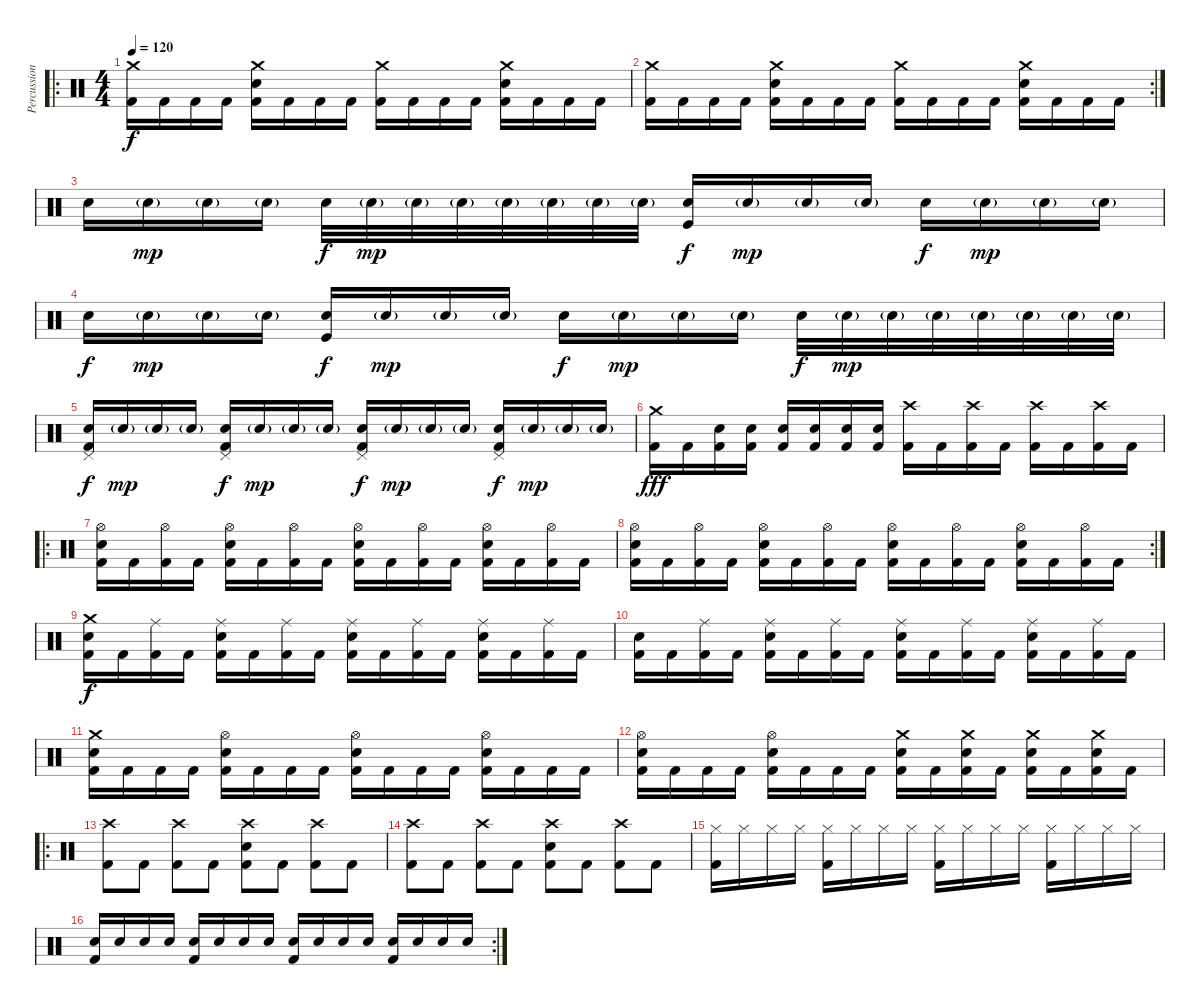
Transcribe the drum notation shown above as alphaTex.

\track ("Percussions" "Percussion") {instrument percussion}
\staff {score}
\articulation defaults
\ro
\ts (4 4)
\tempo 120
\clef neutral
\ks c
("Crash medium (hit)" "Kick (hit) 2").16{dy f} "Kick (hit) 2".16 "Kick (hit) 2".16 "Kick (hit) 2".16 ("Crash medium (hit)" "Electric Snare (hit)" "Kick (hit) 2").16 "Kick (hit) 2".16 "Kick (hit) 2".16 "Kick (hit) 2".16 ("Crash medium (hit)" "Kick (hit) 2").16 "Kick (hit) 2".16 "Kick (hit) 2".16 "Kick (hit) 2".16 ("Crash medium (hit)" "Electric Snare (hit)" "Kick (hit) 2").16 "Kick (hit) 2".16 "Kick (hit) 2".16 "Kick (hit) 2".16 |
\rc 2
("Crash medium (hit)" "Kick (hit) 2").16 "Kick (hit) 2".16 "Kick (hit) 2".16 "Kick (hit) 2".16 ("Crash medium (hit)" "Electric Snare (hit)" "Kick (hit) 2").16 "Kick (hit) 2".16 "Kick (hit) 2".16 "Kick (hit) 2".16 ("Crash medium (hit)" "Kick (hit) 2").16 "Kick (hit) 2".16 "Kick (hit) 2".16 "Kick (hit) 2".16 ("Crash medium (hit)" "Electric Snare (hit)" "Kick (hit) 2").16 "Kick (hit) 2".16 "Kick (hit) 2".16 "Kick (hit) 2".16 |
"Snare (hit) 2".16 "Snare (hit) 2"{g}.16{dy mp} "Snare (hit) 2"{g}.16 "Snare (hit) 2"{g}.16 "Snare (hit) 2".32{dy f} "Snare (hit) 2"{g}.32{dy mp} "Snare (hit) 2"{g}.32 "Snare (hit) 2"{g}.32 "Snare (hit) 2"{g}.32 "Snare (hit) 2"{g}.32 "Snare (hit) 2"{g}.32 "Snare (hit) 2"{g}.32 ("Snare (hit) 2" "Kick (hit)").16{dy f} "Snare (hit) 2"{g}.16{dy mp} "Snare (hit) 2"{g}.16 "Snare (hit) 2"{g}.16 "Snare (hit) 2".16{dy f} "Snare (hit) 2"{g}.16{dy mp} "Snare (hit) 2"{g}.16 "Snare (hit) 2"{g}.16 |
"Snare (hit) 2".16{dy f} "Snare (hit) 2"{g}.16{dy mp} "Snare (hit) 2"{g}.16 "Snare (hit) 2"{g}.16 ("Snare (hit) 2" "Kick (hit)").16{dy f} "Snare (hit) 2"{g}.16{dy mp} "Snare (hit) 2"{g}.16 "Snare (hit) 2"{g}.16 "Snare (hit) 2".16{dy f} "Snare (hit) 2"{g}.16{dy mp} "Snare (hit) 2"{g}.16 "Snare (hit) 2"{g}.16 "Snare (hit) 2".32{dy f} "Snare (hit) 2"{g}.32{dy mp} "Snare (hit) 2"{g}.32 "Snare (hit) 2"{g}.32 "Snare (hit) 2"{g}.32 "Snare (hit) 2"{g}.32 "Snare (hit) 2"{g}.32 "Snare (hit) 2"{g}.32 |
("Pedal Hi-Hat (hit)" "Electric Snare (hit)" "Kick (hit) 2").16{dy f volume 11} "Electric Snare (hit)"{g}.16{dy mp} "Electric Snare (hit)"{g}.16 "Electric Snare (hit)"{g}.16 ("Pedal Hi-Hat (hit)" "Electric Snare (hit)" "Kick (hit) 2").16{dy f} "Electric Snare (hit)"{g}.16{dy mp} "Electric Snare (hit)"{g}.16 "Electric Snare (hit)"{g}.16 ("Pedal Hi-Hat (hit)" "Electric Snare (hit)" "Kick (hit) 2").16{dy f} "Electric Snare (hit)"{g}.16{dy mp} "Electric Snare (hit)"{g}.16 "Electric Snare (hit)"{g}.16 ("Pedal Hi-Hat (hit)" "Electric Snare (hit)" "Kick (hit) 2").16{dy f} "Electric Snare (hit)"{g}.16{dy mp} "Electric Snare (hit)"{g}.16 "Electric Snare (hit)"{g}.16 |
("Crash medium (hit)" "Kick (hit) 2").16{dy fff} "Kick (hit) 2".16 ("Electric Snare (hit)" "Kick (hit) 2").16 ("Electric Snare (hit)" "Kick (hit) 2").16 ("Electric Snare (hit)" "Kick (hit) 2").16 ("Electric Snare (hit)" "Kick (hit) 2").16 ("Electric Snare (hit)" "Kick (hit) 2").16 ("Electric Snare (hit)" "Kick (hit) 2").16 ("Crash high (hit)" "Kick (hit) 2").16 "Kick (hit) 2".16 ("Crash high (hit)" "Kick (hit) 2").16 "Kick (hit) 2".16 ("Crash high (hit)" "Kick (hit) 2").16 "Kick (hit) 2".16 ("Crash high (hit)" "Kick (hit) 2").16 "Kick (hit) 2".16 |
\ro
("Hi-Hat (open)" "Electric Snare (hit)" "Kick (hit) 2").16 "Kick (hit) 2".16 ("Hi-Hat (open)" "Kick (hit) 2").16 "Kick (hit) 2".16 ("Hi-Hat (open)" "Electric Snare (hit)" "Kick (hit) 2").16 "Kick (hit) 2".16 ("Hi-Hat (open)" "Kick (hit) 2").16 "Kick (hit) 2".16 ("Hi-Hat (open)" "Electric Snare (hit)" "Kick (hit) 2").16 "Kick (hit) 2".16 ("Hi-Hat (open)" "Kick (hit) 2").16 "Kick (hit) 2".16 ("Hi-Hat (open)" "Electric Snare (hit)" "Kick (hit) 2").16 "Kick (hit) 2".16 ("Hi-Hat (open)" "Kick (hit) 2").16 "Kick (hit) 2".16 |
\rc 2
("Hi-Hat (open)" "Electric Snare (hit)" "Kick (hit) 2").16 "Kick (hit) 2".16 ("Hi-Hat (open)" "Kick (hit) 2").16 "Kick (hit) 2".16 ("Hi-Hat (open)" "Electric Snare (hit)" "Kick (hit) 2").16 "Kick (hit) 2".16 ("Hi-Hat (open)" "Kick (hit) 2").16 "Kick (hit) 2".16 ("Hi-Hat (open)" "Electric Snare (hit)" "Kick (hit) 2").16 "Kick (hit) 2".16 ("Hi-Hat (open)" "Kick (hit) 2").16 "Kick (hit) 2".16 ("Hi-Hat (open)" "Electric Snare (hit)" "Kick (hit) 2").16 "Kick (hit) 2".16 ("Hi-Hat (open)" "Kick (hit) 2").16 "Kick (hit) 2".16 |
("Kick (hit) 2" "Crash medium (hit)" "Electric Snare (hit)").16{dy f} "Kick (hit) 2".16 ("Kick (hit) 2" "Ride (middle)").16 "Kick (hit) 2".16 ("Kick (hit) 2" "Ride (middle)" "Electric Snare (hit)").16 "Kick (hit) 2".16 ("Kick (hit) 2" "Ride (middle)").16 "Kick (hit) 2".16 ("Kick (hit) 2" "Ride (middle)" "Electric Snare (hit)").16 "Kick (hit) 2".16 ("Kick (hit) 2" "Ride (middle)").16 "Kick (hit) 2".16 ("Kick (hit) 2" "Ride (middle)" "Electric Snare (hit)").16 "Kick (hit) 2".16 ("Kick (hit) 2" "Ride (middle)").16 "Kick (hit) 2".16 |
("Kick (hit) 2" "Electric Snare (hit)").16 "Kick (hit) 2".16 ("Kick (hit) 2" "Ride (middle)").16 "Kick (hit) 2".16 ("Kick (hit) 2" "Ride (middle)" "Electric Snare (hit)").16 "Kick (hit) 2".16 ("Kick (hit) 2" "Ride (middle)").16 "Kick (hit) 2".16 ("Kick (hit) 2" "Ride (middle)" "Electric Snare (hit)").16 "Kick (hit) 2".16 ("Kick (hit) 2" "Ride (middle)").16 "Kick (hit) 2".16 ("Kick (hit) 2" "Ride (middle)" "Electric Snare (hit)").16 "Kick (hit) 2".16 ("Kick (hit) 2" "Ride (middle)").16 "Kick (hit) 2".16 |
("Kick (hit) 2" "Electric Snare (hit)" "Crash medium (hit)").16 "Kick (hit) 2".16 "Kick (hit) 2".16 "Kick (hit) 2".16 ("Kick (hit) 2" "Electric Snare (hit)" "Hi-Hat (open)").16 "Kick (hit) 2".16 "Kick (hit) 2".16 "Kick (hit) 2".16 ("Kick (hit) 2" "Electric Snare (hit)" "Hi-Hat (open)").16 "Kick (hit) 2".16 "Kick (hit) 2".16 "Kick (hit) 2".16 ("Kick (hit) 2" "Electric Snare (hit)" "Hi-Hat (open)").16 "Kick (hit) 2".16 "Kick (hit) 2".16 "Kick (hit) 2".16 |
("Kick (hit) 2" "Electric Snare (hit)" "Hi-Hat (open)").16 "Kick (hit) 2".16 "Kick (hit) 2".16 "Kick (hit) 2".16 ("Kick (hit) 2" "Electric Snare (hit)" "Hi-Hat (open)").16 "Kick (hit) 2".16 "Kick (hit) 2".16 "Kick (hit) 2".16 ("Kick (hit) 2" "Electric Snare (hit)" "Crash medium (hit)").16 "Kick (hit) 2".16 ("Kick (hit) 2" "Electric Snare (hit)" "Crash medium (hit)").16 "Kick (hit) 2".16 ("Kick (hit) 2" "Electric Snare (hit)" "Crash medium (hit)").16 "Kick (hit) 2".16 ("Kick (hit) 2" "Electric Snare (hit)" "Crash medium (hit)").16 "Kick (hit) 2".16 |
\ro
("Crash high (hit)" "Kick (hit) 2").8 "Kick (hit) 2".8 ("Crash high (hit)" "Kick (hit) 2").8 "Kick (hit) 2".8 ("Crash high (hit)" "Electric Snare (hit)" "Kick (hit) 2").8 "Kick (hit) 2".8 ("Crash high (hit)" "Kick (hit) 2").8 "Kick (hit) 2".8 |
("Crash high (hit)" "Kick (hit) 2").8 "Kick (hit) 2".8 ("Crash high (hit)" "Kick (hit) 2").8 "Kick (hit) 2".8 ("Crash high (hit)" "Electric Snare (hit)" "Kick (hit) 2").8 "Kick (hit) 2".8 ("Crash high (hit)" "Kick (hit) 2").8 "Kick (hit) 2".8 |
("Hi-Hat (closed)" "Kick (hit) 2").16 "Hi-Hat (closed)".16 "Hi-Hat (closed)".16 "Hi-Hat (closed)".16 ("Hi-Hat (closed)" "Kick (hit) 2").16 "Hi-Hat (closed)".16 "Hi-Hat (closed)".16 "Hi-Hat (closed)".16 ("Hi-Hat (closed)" "Kick (hit) 2").16 "Hi-Hat (closed)".16 "Hi-Hat (closed)".16 "Hi-Hat (closed)".16 ("Hi-Hat (closed)" "Kick (hit) 2").16 "Hi-Hat (closed)".16 "Hi-Hat (closed)".16 "Hi-Hat (closed)".16 |
\rc 2
("Electric Snare (hit)" "Kick (hit) 2").16 "Electric Snare (hit)".16 "Electric Snare (hit)".16 "Electric Snare (hit)".16 ("Electric Snare (hit)" "Kick (hit) 2").16 "Electric Snare (hit)".16 "Electric Snare (hit)".16 "Electric Snare (hit)".16 ("Electric Snare (hit)" "Kick (hit) 2").16 "Electric Snare (hit)".16 "Electric Snare (hit)".16 "Electric Snare (hit)".16 ("Electric Snare (hit)" "Kick (hit) 2").16 "Electric Snare (hit)".16 "Electric Snare (hit)".16 "Electric Snare (hit)".16
